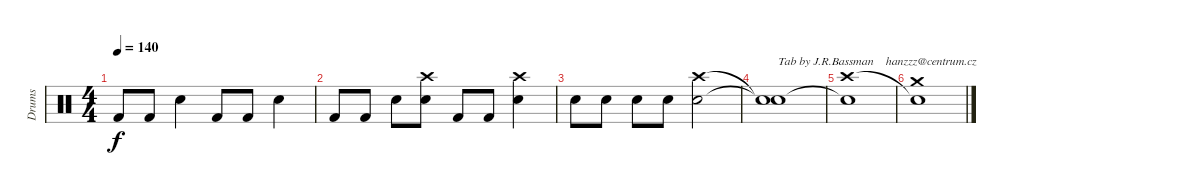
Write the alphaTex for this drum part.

\track ("Drums" "Drums") {instrument percussion}
\staff {score}
\articulation defaults
\ts (4 4)
\tempo 140
\clef neutral
\ks c "Kick (hit) 2".8{dy f} "Kick (hit) 2".8 "Snare (hit) 2".4 "Kick (hit) 2".8 "Kick (hit) 2".8 "Snare (hit) 2".4
|
"Kick (hit) 2".8 "Kick (hit) 2".8 "Snare (hit) 2".8 ("Snare (hit) 2" "Crash high (hit)").8 "Kick (hit) 2".8 "Kick (hit) 2".8 ("Snare (hit) 2" "Crash high (hit)").4 |
"Snare (hit) 2".8 "Snare (hit) 2".8 "Snare (hit) 2".8 "Snare (hit) 2".8 ("Snare (hit) 2" "Crash high (hit)").2 |
("Snare (hit) 2"{t} "Snare (hit)"{t}).1{txt "Tab by J.R.Bassman    hanzzz@centrum.cz"} |
("Crash high (hit)" "Snare (hit)"{t}).1 |
("Snare (hit)"{t} "Crash medium (hit)").1
